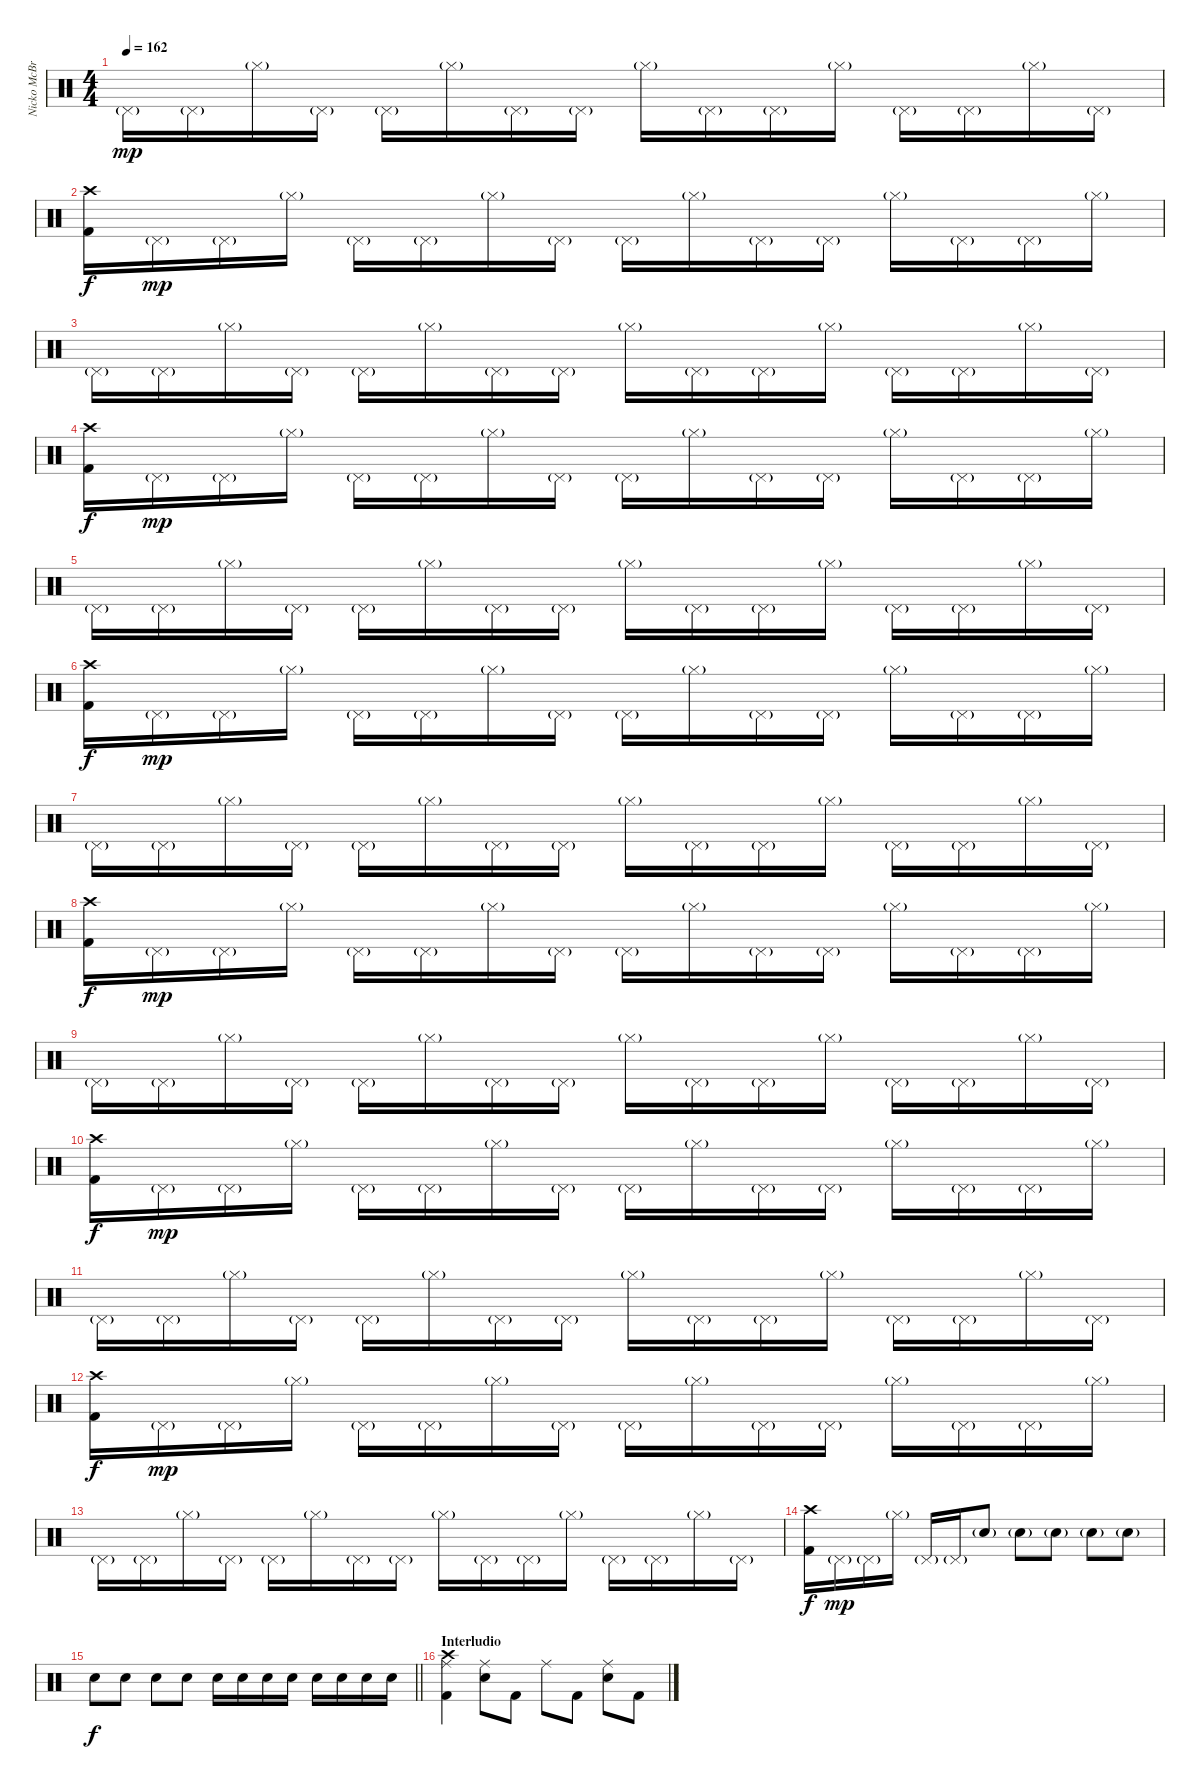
\track ("Nicko McBrain" "Nicko McBr") {instrument percussion}
\staff {score}
\articulation defaults
\ts (4 4)
\tempo 162
\clef neutral
\ks c "Pedal Hi-Hat (hit)"{g}.16{dy mp} "Pedal Hi-Hat (hit)"{g}.16 "Hi-Hat (closed)"{g}.16 "Pedal Hi-Hat (hit)"{g}.16 "Pedal Hi-Hat (hit)"{g}.16 "Hi-Hat (closed)"{g}.16 "Pedal Hi-Hat (hit)"{g}.16 "Pedal Hi-Hat (hit)"{g}.16 "Hi-Hat (closed)"{g}.16 "Pedal Hi-Hat (hit)"{g}.16 "Pedal Hi-Hat (hit)"{g}.16 "Hi-Hat (closed)"{g}.16 "Pedal Hi-Hat (hit)"{g}.16 "Pedal Hi-Hat (hit)"{g}.16 "Hi-Hat (closed)"{g}.16 "Pedal Hi-Hat (hit)"{g}.16
|
("Kick (hit) 2" "Crash high (hit)").16{dy f} "Pedal Hi-Hat (hit)"{g}.16{dy mp} "Pedal Hi-Hat (hit)"{g}.16 "Hi-Hat (closed)"{g}.16 "Pedal Hi-Hat (hit)"{g}.16 "Pedal Hi-Hat (hit)"{g}.16 "Hi-Hat (closed)"{g}.16 "Pedal Hi-Hat (hit)"{g}.16 "Pedal Hi-Hat (hit)"{g}.16 "Hi-Hat (closed)"{g}.16 "Pedal Hi-Hat (hit)"{g}.16 "Pedal Hi-Hat (hit)"{g}.16 "Hi-Hat (closed)"{g}.16 "Pedal Hi-Hat (hit)"{g}.16 "Pedal Hi-Hat (hit)"{g}.16 "Hi-Hat (closed)"{g}.16 |
"Pedal Hi-Hat (hit)"{g}.16 "Pedal Hi-Hat (hit)"{g}.16 "Hi-Hat (closed)"{g}.16 "Pedal Hi-Hat (hit)"{g}.16 "Pedal Hi-Hat (hit)"{g}.16 "Hi-Hat (closed)"{g}.16 "Pedal Hi-Hat (hit)"{g}.16 "Pedal Hi-Hat (hit)"{g}.16 "Hi-Hat (closed)"{g}.16 "Pedal Hi-Hat (hit)"{g}.16 "Pedal Hi-Hat (hit)"{g}.16 "Hi-Hat (closed)"{g}.16 "Pedal Hi-Hat (hit)"{g}.16 "Pedal Hi-Hat (hit)"{g}.16 "Hi-Hat (closed)"{g}.16 "Pedal Hi-Hat (hit)"{g}.16 |
("Kick (hit) 2" "Crash high (hit)").16{dy f} "Pedal Hi-Hat (hit)"{g}.16{dy mp} "Pedal Hi-Hat (hit)"{g}.16 "Hi-Hat (closed)"{g}.16 "Pedal Hi-Hat (hit)"{g}.16 "Pedal Hi-Hat (hit)"{g}.16 "Hi-Hat (closed)"{g}.16 "Pedal Hi-Hat (hit)"{g}.16 "Pedal Hi-Hat (hit)"{g}.16 "Hi-Hat (closed)"{g}.16 "Pedal Hi-Hat (hit)"{g}.16 "Pedal Hi-Hat (hit)"{g}.16 "Hi-Hat (closed)"{g}.16 "Pedal Hi-Hat (hit)"{g}.16 "Pedal Hi-Hat (hit)"{g}.16 "Hi-Hat (closed)"{g}.16 |
"Pedal Hi-Hat (hit)"{g}.16 "Pedal Hi-Hat (hit)"{g}.16 "Hi-Hat (closed)"{g}.16 "Pedal Hi-Hat (hit)"{g}.16 "Pedal Hi-Hat (hit)"{g}.16 "Hi-Hat (closed)"{g}.16 "Pedal Hi-Hat (hit)"{g}.16 "Pedal Hi-Hat (hit)"{g}.16 "Hi-Hat (closed)"{g}.16 "Pedal Hi-Hat (hit)"{g}.16 "Pedal Hi-Hat (hit)"{g}.16 "Hi-Hat (closed)"{g}.16 "Pedal Hi-Hat (hit)"{g}.16 "Pedal Hi-Hat (hit)"{g}.16 "Hi-Hat (closed)"{g}.16 "Pedal Hi-Hat (hit)"{g}.16 |
("Kick (hit) 2" "Crash high (hit)").16{dy f} "Pedal Hi-Hat (hit)"{g}.16{dy mp} "Pedal Hi-Hat (hit)"{g}.16 "Hi-Hat (closed)"{g}.16 "Pedal Hi-Hat (hit)"{g}.16 "Pedal Hi-Hat (hit)"{g}.16 "Hi-Hat (closed)"{g}.16 "Pedal Hi-Hat (hit)"{g}.16 "Pedal Hi-Hat (hit)"{g}.16 "Hi-Hat (closed)"{g}.16 "Pedal Hi-Hat (hit)"{g}.16 "Pedal Hi-Hat (hit)"{g}.16 "Hi-Hat (closed)"{g}.16 "Pedal Hi-Hat (hit)"{g}.16 "Pedal Hi-Hat (hit)"{g}.16 "Hi-Hat (closed)"{g}.16 |
"Pedal Hi-Hat (hit)"{g}.16 "Pedal Hi-Hat (hit)"{g}.16 "Hi-Hat (closed)"{g}.16 "Pedal Hi-Hat (hit)"{g}.16 "Pedal Hi-Hat (hit)"{g}.16 "Hi-Hat (closed)"{g}.16 "Pedal Hi-Hat (hit)"{g}.16 "Pedal Hi-Hat (hit)"{g}.16 "Hi-Hat (closed)"{g}.16 "Pedal Hi-Hat (hit)"{g}.16 "Pedal Hi-Hat (hit)"{g}.16 "Hi-Hat (closed)"{g}.16 "Pedal Hi-Hat (hit)"{g}.16 "Pedal Hi-Hat (hit)"{g}.16 "Hi-Hat (closed)"{g}.16 "Pedal Hi-Hat (hit)"{g}.16 |
("Kick (hit) 2" "Crash high (hit)").16{dy f} "Pedal Hi-Hat (hit)"{g}.16{dy mp} "Pedal Hi-Hat (hit)"{g}.16 "Hi-Hat (closed)"{g}.16 "Pedal Hi-Hat (hit)"{g}.16 "Pedal Hi-Hat (hit)"{g}.16 "Hi-Hat (closed)"{g}.16 "Pedal Hi-Hat (hit)"{g}.16 "Pedal Hi-Hat (hit)"{g}.16 "Hi-Hat (closed)"{g}.16 "Pedal Hi-Hat (hit)"{g}.16 "Pedal Hi-Hat (hit)"{g}.16 "Hi-Hat (closed)"{g}.16 "Pedal Hi-Hat (hit)"{g}.16 "Pedal Hi-Hat (hit)"{g}.16 "Hi-Hat (closed)"{g}.16 |
"Pedal Hi-Hat (hit)"{g}.16 "Pedal Hi-Hat (hit)"{g}.16 "Hi-Hat (closed)"{g}.16 "Pedal Hi-Hat (hit)"{g}.16 "Pedal Hi-Hat (hit)"{g}.16 "Hi-Hat (closed)"{g}.16 "Pedal Hi-Hat (hit)"{g}.16 "Pedal Hi-Hat (hit)"{g}.16 "Hi-Hat (closed)"{g}.16 "Pedal Hi-Hat (hit)"{g}.16 "Pedal Hi-Hat (hit)"{g}.16 "Hi-Hat (closed)"{g}.16 "Pedal Hi-Hat (hit)"{g}.16 "Pedal Hi-Hat (hit)"{g}.16 "Hi-Hat (closed)"{g}.16 "Pedal Hi-Hat (hit)"{g}.16 |
("Kick (hit) 2" "Crash high (hit)").16{dy f} "Pedal Hi-Hat (hit)"{g}.16{dy mp} "Pedal Hi-Hat (hit)"{g}.16 "Hi-Hat (closed)"{g}.16 "Pedal Hi-Hat (hit)"{g}.16 "Pedal Hi-Hat (hit)"{g}.16 "Hi-Hat (closed)"{g}.16 "Pedal Hi-Hat (hit)"{g}.16 "Pedal Hi-Hat (hit)"{g}.16 "Hi-Hat (closed)"{g}.16 "Pedal Hi-Hat (hit)"{g}.16 "Pedal Hi-Hat (hit)"{g}.16 "Hi-Hat (closed)"{g}.16 "Pedal Hi-Hat (hit)"{g}.16 "Pedal Hi-Hat (hit)"{g}.16 "Hi-Hat (closed)"{g}.16 |
"Pedal Hi-Hat (hit)"{g}.16 "Pedal Hi-Hat (hit)"{g}.16 "Hi-Hat (closed)"{g}.16 "Pedal Hi-Hat (hit)"{g}.16 "Pedal Hi-Hat (hit)"{g}.16 "Hi-Hat (closed)"{g}.16 "Pedal Hi-Hat (hit)"{g}.16 "Pedal Hi-Hat (hit)"{g}.16 "Hi-Hat (closed)"{g}.16 "Pedal Hi-Hat (hit)"{g}.16 "Pedal Hi-Hat (hit)"{g}.16 "Hi-Hat (closed)"{g}.16 "Pedal Hi-Hat (hit)"{g}.16 "Pedal Hi-Hat (hit)"{g}.16 "Hi-Hat (closed)"{g}.16 "Pedal Hi-Hat (hit)"{g}.16 |
("Kick (hit) 2" "Crash high (hit)").16{dy f} "Pedal Hi-Hat (hit)"{g}.16{dy mp} "Pedal Hi-Hat (hit)"{g}.16 "Hi-Hat (closed)"{g}.16 "Pedal Hi-Hat (hit)"{g}.16 "Pedal Hi-Hat (hit)"{g}.16 "Hi-Hat (closed)"{g}.16 "Pedal Hi-Hat (hit)"{g}.16 "Pedal Hi-Hat (hit)"{g}.16 "Hi-Hat (closed)"{g}.16 "Pedal Hi-Hat (hit)"{g}.16 "Pedal Hi-Hat (hit)"{g}.16 "Hi-Hat (closed)"{g}.16 "Pedal Hi-Hat (hit)"{g}.16 "Pedal Hi-Hat (hit)"{g}.16 "Hi-Hat (closed)"{g}.16 |
"Pedal Hi-Hat (hit)"{g}.16 "Pedal Hi-Hat (hit)"{g}.16 "Hi-Hat (closed)"{g}.16 "Pedal Hi-Hat (hit)"{g}.16 "Pedal Hi-Hat (hit)"{g}.16 "Hi-Hat (closed)"{g}.16 "Pedal Hi-Hat (hit)"{g}.16 "Pedal Hi-Hat (hit)"{g}.16 "Hi-Hat (closed)"{g}.16 "Pedal Hi-Hat (hit)"{g}.16 "Pedal Hi-Hat (hit)"{g}.16 "Hi-Hat (closed)"{g}.16 "Pedal Hi-Hat (hit)"{g}.16 "Pedal Hi-Hat (hit)"{g}.16 "Hi-Hat (closed)"{g}.16 "Pedal Hi-Hat (hit)"{g}.16 |
("Kick (hit) 2" "Crash high (hit)").16{dy f} "Pedal Hi-Hat (hit)"{g}.16{dy mp} "Pedal Hi-Hat (hit)"{g}.16 "Hi-Hat (closed)"{g}.16 "Pedal Hi-Hat (hit)"{g}.16 "Pedal Hi-Hat (hit)"{g}.16 "Electric Snare (hit)"{g}.8 "Electric Snare (hit)"{g}.8 "Electric Snare (hit)"{g}.8 "Electric Snare (hit)"{g}.8 "Electric Snare (hit)"{g}.8 |
\barLineRight lightlight "Electric Snare (hit)".8{dy f} "Electric Snare (hit)".8 "Electric Snare (hit)".8 "Electric Snare (hit)".8 "Electric Snare (hit)".16 "Electric Snare (hit)".16 "Electric Snare (hit)".16 "Electric Snare (hit)".16 "Electric Snare (hit)".16 "Electric Snare (hit)".16 "Electric Snare (hit)".16 "Electric Snare (hit)".16
|
\section ("" "Interludio")
("Kick (hit) 2" "Ride (middle)" "Crash high (hit)").4 ("Electric Snare (hit)" "Ride (middle)").8 "Kick (hit) 2".8 "Ride (middle)".8 "Kick (hit) 2".8 ("Electric Snare (hit)" "Ride (middle)").8 "Kick (hit) 2".8
